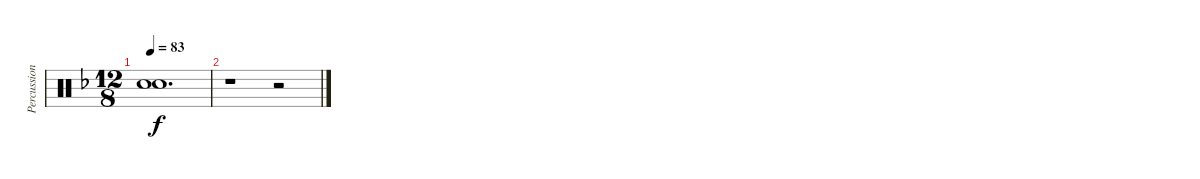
\track ("Percussions" "Percussion") {instrument percussion}
\staff {score}
\articulation defaults
\ts (12 8)
\tempo 83
\clef neutral
\ks dminor
("Snare (hit)"{t} "Snare (hit)"{t}).1{d dy f} |
r.1 r.2
